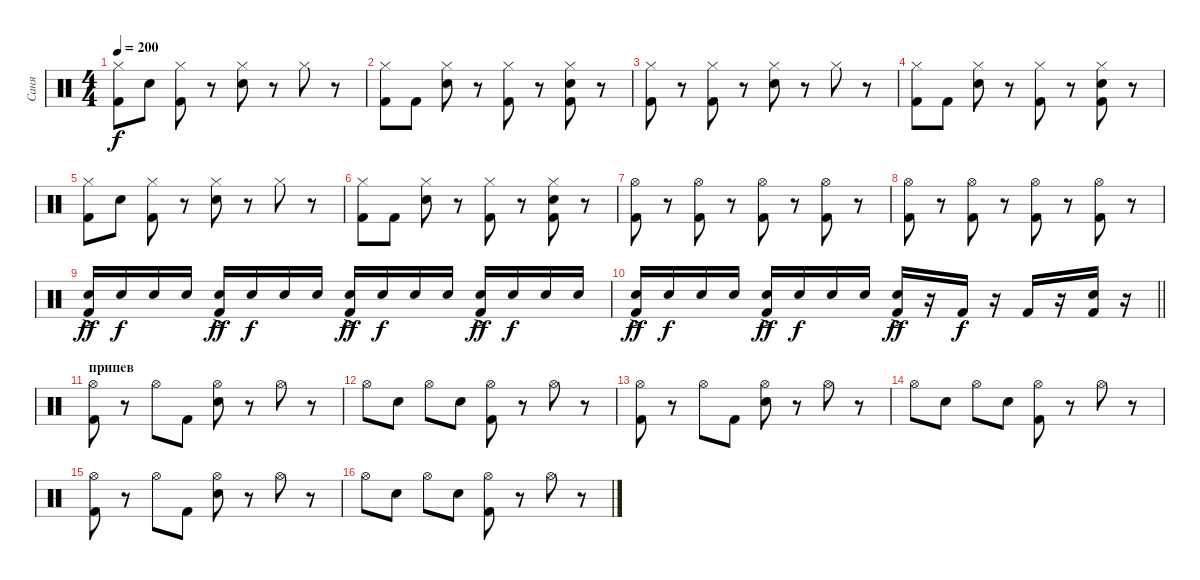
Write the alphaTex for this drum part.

\track ("Саня" "Саня") {instrument percussion}
\staff {score}
\articulation defaults
\ts (4 4)
\tempo 200
\clef neutral
\ks c
("Hi-Hat (closed)" "Kick (hit) 2").8{dy f} "Electric Snare (hit)".8 ("Hi-Hat (closed)" "Kick (hit) 2").8 r.8 ("Hi-Hat (closed)" "Electric Snare (hit)").8 r.8 "Hi-Hat (closed)".8 r.8 |
("Hi-Hat (closed)" "Kick (hit) 2").8 "Kick (hit) 2".8 ("Hi-Hat (closed)" "Electric Snare (hit)").8 r.8 ("Hi-Hat (closed)" "Kick (hit) 2").8 r.8 ("Hi-Hat (closed)" "Electric Snare (hit)" "Kick (hit) 2").8 r.8 |
("Hi-Hat (closed)" "Kick (hit) 2").8 r.8 ("Hi-Hat (closed)" "Kick (hit) 2").8 r.8 ("Hi-Hat (closed)" "Electric Snare (hit)").8 r.8 "Hi-Hat (closed)".8 r.8 |
("Hi-Hat (closed)" "Kick (hit) 2").8 "Kick (hit) 2".8 ("Hi-Hat (closed)" "Electric Snare (hit)").8 r.8 ("Hi-Hat (closed)" "Kick (hit) 2").8 r.8 ("Hi-Hat (closed)" "Electric Snare (hit)" "Kick (hit) 2").8 r.8 |
("Hi-Hat (closed)" "Kick (hit) 2").8 "Electric Snare (hit)".8 ("Hi-Hat (closed)" "Kick (hit) 2").8 r.8 ("Hi-Hat (closed)" "Electric Snare (hit)").8 r.8 "Hi-Hat (closed)".8 r.8 |
("Hi-Hat (closed)" "Kick (hit) 2").8 "Kick (hit) 2".8 ("Hi-Hat (closed)" "Electric Snare (hit)").8 r.8 ("Hi-Hat (closed)" "Kick (hit) 2").8 r.8 ("Hi-Hat (closed)" "Electric Snare (hit)" "Kick (hit) 2").8 r.8 |
("Hi-Hat (open)" "Kick (hit) 2").8 r.8 ("Hi-Hat (open)" "Kick (hit) 2").8 r.8 ("Hi-Hat (open)" "Kick (hit) 2").8 r.8 ("Hi-Hat (open)" "Kick (hit) 2").8 r.8 |
("Hi-Hat (open)" "Kick (hit) 2").8 r.8 ("Hi-Hat (open)" "Kick (hit) 2").8 r.8 ("Hi-Hat (open)" "Kick (hit) 2").8 r.8 ("Hi-Hat (open)" "Kick (hit) 2").8 r.8 |
("Electric Snare (hit)"{ac} "Kick (hit) 2").16{dy ff volume 6} "Electric Snare (hit)".16{dy f volume 13} "Electric Snare (hit)".16 "Electric Snare (hit)".16 ("Electric Snare (hit)"{ac} "Kick (hit) 2").16{dy ff} "Electric Snare (hit)".16{dy f} "Electric Snare (hit)".16 "Electric Snare (hit)".16 ("Electric Snare (hit)"{ac} "Kick (hit) 2").16{dy ff} "Electric Snare (hit)".16{dy f} "Electric Snare (hit)".16 "Electric Snare (hit)".16 ("Electric Snare (hit)"{ac} "Kick (hit) 2").16{dy ff} "Electric Snare (hit)".16{dy f} "Electric Snare (hit)".16 "Electric Snare (hit)".16 |
\barLineRight lightlight
("Electric Snare (hit)"{ac} "Kick (hit) 2").16{dy ff} "Electric Snare (hit)".16{dy f} "Electric Snare (hit)".16 "Electric Snare (hit)".16 ("Electric Snare (hit)"{ac} "Kick (hit) 2").16{dy ff} "Electric Snare (hit)".16{dy f} "Electric Snare (hit)".16 "Electric Snare (hit)".16 ("Electric Snare (hit)"{ac} "Kick (hit) 2").16{dy ff} r.16 "Kick (hit) 2".16{dy f} r.16 "Kick (hit) 2".16 r.16 ("Electric Snare (hit)" "Kick (hit) 2").16 r.16 |
\section ("" "припев")
("Hi-Hat (open)" "Kick (hit) 2").8 r.8 "Hi-Hat (open)".8 "Kick (hit) 2".8 ("Hi-Hat (open)" "Electric Snare (hit)").8 r.8 "Hi-Hat (open)".8 r.8 |
"Hi-Hat (open)".8 "Electric Snare (hit)".8 "Hi-Hat (open)".8 "Electric Snare (hit)".8 ("Hi-Hat (open)" "Kick (hit) 2").8 r.8 "Hi-Hat (open)".8 r.8 |
("Hi-Hat (open)" "Kick (hit) 2").8 r.8 "Hi-Hat (open)".8 "Kick (hit) 2".8 ("Hi-Hat (open)" "Electric Snare (hit)").8 r.8 "Hi-Hat (open)".8 r.8 |
"Hi-Hat (open)".8 "Electric Snare (hit)".8 "Hi-Hat (open)".8 "Electric Snare (hit)".8 ("Hi-Hat (open)" "Kick (hit) 2").8 r.8 "Hi-Hat (open)".8 r.8 |
("Hi-Hat (open)" "Kick (hit) 2").8 r.8 "Hi-Hat (open)".8 "Kick (hit) 2".8 ("Hi-Hat (open)" "Electric Snare (hit)").8 r.8 "Hi-Hat (open)".8 r.8 |
"Hi-Hat (open)".8 "Electric Snare (hit)".8 "Hi-Hat (open)".8 "Electric Snare (hit)".8 ("Hi-Hat (open)" "Kick (hit) 2").8 r.8 "Hi-Hat (open)".8 r.8
